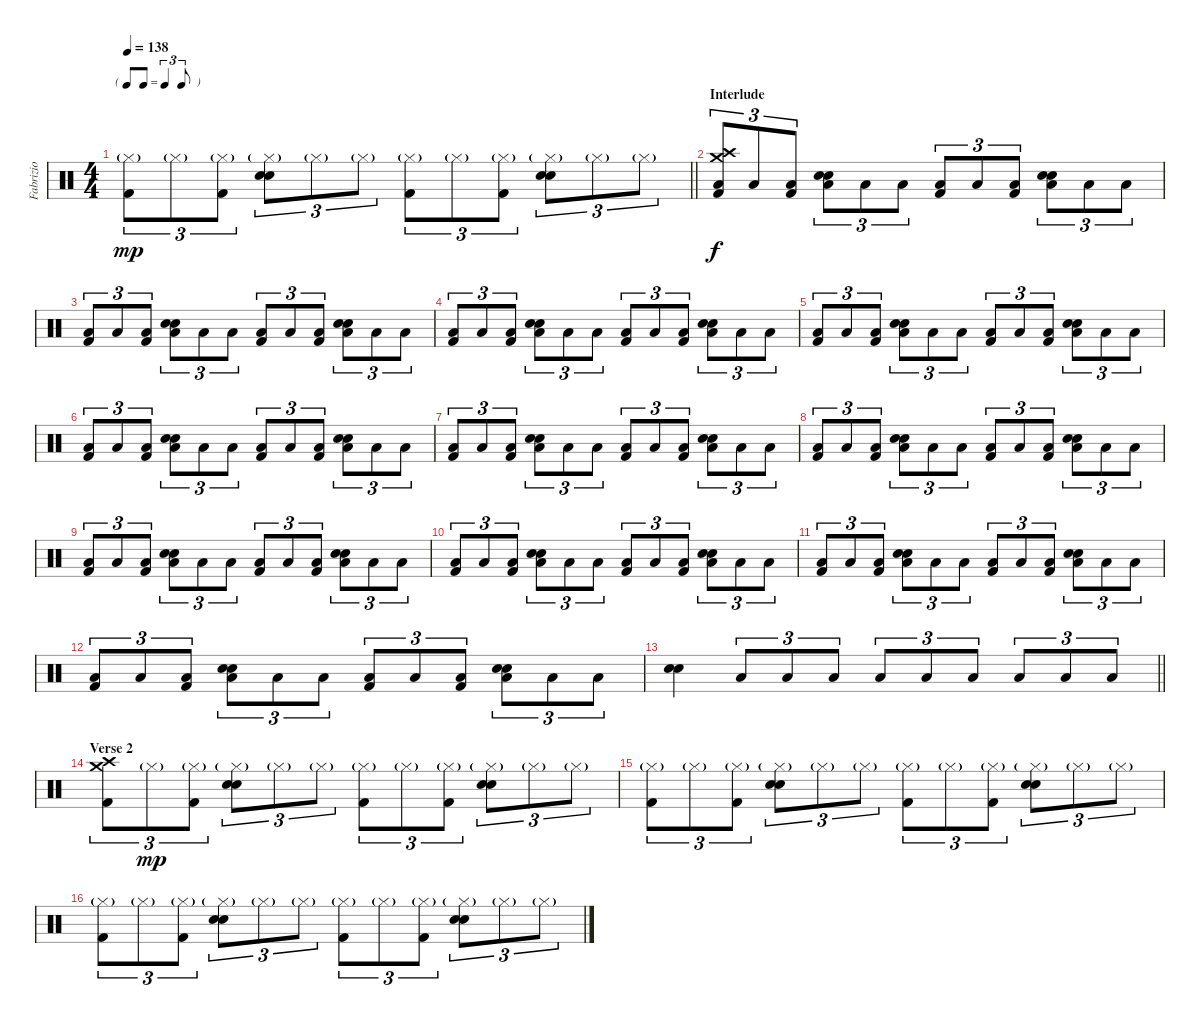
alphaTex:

\track ("Fabrizio" "Fabrizio") {instrument percussion}
\staff {score}
\articulation defaults
\ts (4 4)
\tf triplet8th
\tempo 138
\clef neutral
\barLineRight lightlight
\ks c
("Hi-Hat (closed)"{g} "Kick (hit) 2").8{tu (3 2) dy mp} "Hi-Hat (closed)"{g}.8{tu (3 2)} ("Hi-Hat (closed)"{g} "Kick (hit) 2").8{tu (3 2)} ("Hi-Hat (closed)"{g} "Electric Snare (hit)" "Snare (hit) 2").8{tu (3 2)} "Hi-Hat (closed)"{g}.8{tu (3 2)} "Hi-Hat (closed)"{g}.8{tu (3 2)} ("Hi-Hat (closed)"{g} "Kick (hit) 2").8{tu (3 2)} "Hi-Hat (closed)"{g}.8{tu (3 2)} ("Hi-Hat (closed)"{g} "Kick (hit) 2").8{tu (3 2)} ("Hi-Hat (closed)"{g} "Electric Snare (hit)" "Snare (hit) 2").8{tu (3 2)} "Hi-Hat (closed)"{g}.8{tu (3 2)} "Hi-Hat (closed)"{g}.8{tu (3 2)} |
\section ("" "Interlude")
("Crash high (hit)" "Crash medium (hit)" "Kick (hit) 2" "Low Floor Tom (hit)").8{tu (3 2) dy f} "Low Floor Tom (hit)".8{tu (3 2)} ("Kick (hit) 2" "Low Floor Tom (hit)").8{tu (3 2)} ("Electric Snare (hit)" "Snare (hit) 2" "Low Floor Tom (hit)").8{tu (3 2)} "Low Floor Tom (hit)".8{tu (3 2)} "Low Floor Tom (hit)".8{tu (3 2)} ("Kick (hit) 2" "Low Floor Tom (hit)").8{tu (3 2)} "Low Floor Tom (hit)".8{tu (3 2)} ("Kick (hit) 2" "Low Floor Tom (hit)").8{tu (3 2)} ("Electric Snare (hit)" "Snare (hit) 2" "Low Floor Tom (hit)").8{tu (3 2)} "Low Floor Tom (hit)".8{tu (3 2)} "Low Floor Tom (hit)".8{tu (3 2)} |
("Kick (hit) 2" "Low Floor Tom (hit)").8{tu (3 2)} "Low Floor Tom (hit)".8{tu (3 2)} ("Kick (hit) 2" "Low Floor Tom (hit)").8{tu (3 2)} ("Electric Snare (hit)" "Snare (hit) 2" "Low Floor Tom (hit)").8{tu (3 2)} "Low Floor Tom (hit)".8{tu (3 2)} "Low Floor Tom (hit)".8{tu (3 2)} ("Kick (hit) 2" "Low Floor Tom (hit)").8{tu (3 2)} "Low Floor Tom (hit)".8{tu (3 2)} ("Kick (hit) 2" "Low Floor Tom (hit)").8{tu (3 2)} ("Electric Snare (hit)" "Snare (hit) 2" "Low Floor Tom (hit)").8{tu (3 2)} "Low Floor Tom (hit)".8{tu (3 2)} "Low Floor Tom (hit)".8{tu (3 2)} |
("Kick (hit) 2" "Low Floor Tom (hit)").8{tu (3 2)} "Low Floor Tom (hit)".8{tu (3 2)} ("Kick (hit) 2" "Low Floor Tom (hit)").8{tu (3 2)} ("Electric Snare (hit)" "Snare (hit) 2" "Low Floor Tom (hit)").8{tu (3 2)} "Low Floor Tom (hit)".8{tu (3 2)} "Low Floor Tom (hit)".8{tu (3 2)} ("Kick (hit) 2" "Low Floor Tom (hit)").8{tu (3 2)} "Low Floor Tom (hit)".8{tu (3 2)} ("Kick (hit) 2" "Low Floor Tom (hit)").8{tu (3 2)} ("Electric Snare (hit)" "Snare (hit) 2" "Low Floor Tom (hit)").8{tu (3 2)} "Low Floor Tom (hit)".8{tu (3 2)} "Low Floor Tom (hit)".8{tu (3 2)} |
("Kick (hit) 2" "Low Floor Tom (hit)").8{tu (3 2)} "Low Floor Tom (hit)".8{tu (3 2)} ("Kick (hit) 2" "Low Floor Tom (hit)").8{tu (3 2)} ("Electric Snare (hit)" "Snare (hit) 2" "Low Floor Tom (hit)").8{tu (3 2)} "Low Floor Tom (hit)".8{tu (3 2)} "Low Floor Tom (hit)".8{tu (3 2)} ("Kick (hit) 2" "Low Floor Tom (hit)").8{tu (3 2)} "Low Floor Tom (hit)".8{tu (3 2)} ("Kick (hit) 2" "Low Floor Tom (hit)").8{tu (3 2)} ("Electric Snare (hit)" "Snare (hit) 2" "Low Floor Tom (hit)").8{tu (3 2)} "Low Floor Tom (hit)".8{tu (3 2)} "Low Floor Tom (hit)".8{tu (3 2)} |
("Kick (hit) 2" "Low Floor Tom (hit)").8{tu (3 2)} "Low Floor Tom (hit)".8{tu (3 2)} ("Kick (hit) 2" "Low Floor Tom (hit)").8{tu (3 2)} ("Electric Snare (hit)" "Snare (hit) 2" "Low Floor Tom (hit)").8{tu (3 2)} "Low Floor Tom (hit)".8{tu (3 2)} "Low Floor Tom (hit)".8{tu (3 2)} ("Kick (hit) 2" "Low Floor Tom (hit)").8{tu (3 2)} "Low Floor Tom (hit)".8{tu (3 2)} ("Kick (hit) 2" "Low Floor Tom (hit)").8{tu (3 2)} ("Electric Snare (hit)" "Snare (hit) 2" "Low Floor Tom (hit)").8{tu (3 2)} "Low Floor Tom (hit)".8{tu (3 2)} "Low Floor Tom (hit)".8{tu (3 2)} |
("Kick (hit) 2" "Low Floor Tom (hit)").8{tu (3 2)} "Low Floor Tom (hit)".8{tu (3 2)} ("Kick (hit) 2" "Low Floor Tom (hit)").8{tu (3 2)} ("Electric Snare (hit)" "Snare (hit) 2" "Low Floor Tom (hit)").8{tu (3 2)} "Low Floor Tom (hit)".8{tu (3 2)} "Low Floor Tom (hit)".8{tu (3 2)} ("Kick (hit) 2" "Low Floor Tom (hit)").8{tu (3 2)} "Low Floor Tom (hit)".8{tu (3 2)} ("Kick (hit) 2" "Low Floor Tom (hit)").8{tu (3 2)} ("Electric Snare (hit)" "Snare (hit) 2" "Low Floor Tom (hit)").8{tu (3 2)} "Low Floor Tom (hit)".8{tu (3 2)} "Low Floor Tom (hit)".8{tu (3 2)} |
("Kick (hit) 2" "Low Floor Tom (hit)").8{tu (3 2)} "Low Floor Tom (hit)".8{tu (3 2)} ("Kick (hit) 2" "Low Floor Tom (hit)").8{tu (3 2)} ("Electric Snare (hit)" "Snare (hit) 2" "Low Floor Tom (hit)").8{tu (3 2)} "Low Floor Tom (hit)".8{tu (3 2)} "Low Floor Tom (hit)".8{tu (3 2)} ("Kick (hit) 2" "Low Floor Tom (hit)").8{tu (3 2)} "Low Floor Tom (hit)".8{tu (3 2)} ("Kick (hit) 2" "Low Floor Tom (hit)").8{tu (3 2)} ("Electric Snare (hit)" "Snare (hit) 2" "Low Floor Tom (hit)").8{tu (3 2)} "Low Floor Tom (hit)".8{tu (3 2)} "Low Floor Tom (hit)".8{tu (3 2)} |
("Kick (hit) 2" "Low Floor Tom (hit)").8{tu (3 2)} "Low Floor Tom (hit)".8{tu (3 2)} ("Kick (hit) 2" "Low Floor Tom (hit)").8{tu (3 2)} ("Electric Snare (hit)" "Snare (hit) 2" "Low Floor Tom (hit)").8{tu (3 2)} "Low Floor Tom (hit)".8{tu (3 2)} "Low Floor Tom (hit)".8{tu (3 2)} ("Kick (hit) 2" "Low Floor Tom (hit)").8{tu (3 2)} "Low Floor Tom (hit)".8{tu (3 2)} ("Kick (hit) 2" "Low Floor Tom (hit)").8{tu (3 2)} ("Electric Snare (hit)" "Snare (hit) 2" "Low Floor Tom (hit)").8{tu (3 2)} "Low Floor Tom (hit)".8{tu (3 2)} "Low Floor Tom (hit)".8{tu (3 2)} |
("Kick (hit) 2" "Low Floor Tom (hit)").8{tu (3 2)} "Low Floor Tom (hit)".8{tu (3 2)} ("Kick (hit) 2" "Low Floor Tom (hit)").8{tu (3 2)} ("Electric Snare (hit)" "Snare (hit) 2" "Low Floor Tom (hit)").8{tu (3 2)} "Low Floor Tom (hit)".8{tu (3 2)} "Low Floor Tom (hit)".8{tu (3 2)} ("Kick (hit) 2" "Low Floor Tom (hit)").8{tu (3 2)} "Low Floor Tom (hit)".8{tu (3 2)} ("Kick (hit) 2" "Low Floor Tom (hit)").8{tu (3 2)} ("Electric Snare (hit)" "Snare (hit) 2" "Low Floor Tom (hit)").8{tu (3 2)} "Low Floor Tom (hit)".8{tu (3 2)} "Low Floor Tom (hit)".8{tu (3 2)} |
("Kick (hit) 2" "Low Floor Tom (hit)").8{tu (3 2)} "Low Floor Tom (hit)".8{tu (3 2)} ("Kick (hit) 2" "Low Floor Tom (hit)").8{tu (3 2)} ("Electric Snare (hit)" "Snare (hit) 2" "Low Floor Tom (hit)").8{tu (3 2)} "Low Floor Tom (hit)".8{tu (3 2)} "Low Floor Tom (hit)".8{tu (3 2)} ("Kick (hit) 2" "Low Floor Tom (hit)").8{tu (3 2)} "Low Floor Tom (hit)".8{tu (3 2)} ("Kick (hit) 2" "Low Floor Tom (hit)").8{tu (3 2)} ("Electric Snare (hit)" "Snare (hit) 2" "Low Floor Tom (hit)").8{tu (3 2)} "Low Floor Tom (hit)".8{tu (3 2)} "Low Floor Tom (hit)".8{tu (3 2)} |
("Kick (hit) 2" "Low Floor Tom (hit)").8{tu (3 2)} "Low Floor Tom (hit)".8{tu (3 2)} ("Kick (hit) 2" "Low Floor Tom (hit)").8{tu (3 2)} ("Electric Snare (hit)" "Snare (hit) 2" "Low Floor Tom (hit)").8{tu (3 2)} "Low Floor Tom (hit)".8{tu (3 2)} "Low Floor Tom (hit)".8{tu (3 2)} ("Kick (hit) 2" "Low Floor Tom (hit)").8{tu (3 2)} "Low Floor Tom (hit)".8{tu (3 2)} ("Kick (hit) 2" "Low Floor Tom (hit)").8{tu (3 2)} ("Electric Snare (hit)" "Snare (hit) 2" "Low Floor Tom (hit)").8{tu (3 2)} "Low Floor Tom (hit)".8{tu (3 2)} "Low Floor Tom (hit)".8{tu (3 2)} |
\barLineRight lightlight
("Electric Snare (hit)" "Snare (hit) 2").4 "Low Floor Tom (hit)".8{tu (3 2)} "Low Floor Tom (hit)".8{tu (3 2)} "Low Floor Tom (hit)".8{tu (3 2)} "Low Floor Tom (hit)".8{tu (3 2)} "Low Floor Tom (hit)".8{tu (3 2)} "Low Floor Tom (hit)".8{tu (3 2)} "Low Floor Tom (hit)".8{tu (3 2)} "Low Floor Tom (hit)".8{tu (3 2)} "Low Floor Tom (hit)".8{tu (3 2)} |
\section ("" "Verse 2")
("Crash medium (hit)" "Crash high (hit)" "Kick (hit) 2").8{tu (3 2)} "Hi-Hat (closed)"{g}.8{tu (3 2) dy mp} ("Hi-Hat (closed)"{g} "Kick (hit) 2").8{tu (3 2)} ("Hi-Hat (closed)"{g} "Electric Snare (hit)" "Snare (hit) 2").8{tu (3 2)} "Hi-Hat (closed)"{g}.8{tu (3 2)} "Hi-Hat (closed)"{g}.8{tu (3 2)} ("Hi-Hat (closed)"{g} "Kick (hit) 2").8{tu (3 2)} "Hi-Hat (closed)"{g}.8{tu (3 2)} ("Hi-Hat (closed)"{g} "Kick (hit) 2").8{tu (3 2)} ("Hi-Hat (closed)"{g} "Electric Snare (hit)" "Snare (hit) 2").8{tu (3 2)} "Hi-Hat (closed)"{g}.8{tu (3 2)} "Hi-Hat (closed)"{g}.8{tu (3 2)} |
("Hi-Hat (closed)"{g} "Kick (hit) 2").8{tu (3 2)} "Hi-Hat (closed)"{g}.8{tu (3 2)} ("Hi-Hat (closed)"{g} "Kick (hit) 2").8{tu (3 2)} ("Hi-Hat (closed)"{g} "Electric Snare (hit)" "Snare (hit) 2").8{tu (3 2)} "Hi-Hat (closed)"{g}.8{tu (3 2)} "Hi-Hat (closed)"{g}.8{tu (3 2)} ("Hi-Hat (closed)"{g} "Kick (hit) 2").8{tu (3 2)} "Hi-Hat (closed)"{g}.8{tu (3 2)} ("Hi-Hat (closed)"{g} "Kick (hit) 2").8{tu (3 2)} ("Hi-Hat (closed)"{g} "Electric Snare (hit)" "Snare (hit) 2").8{tu (3 2)} "Hi-Hat (closed)"{g}.8{tu (3 2)} "Hi-Hat (closed)"{g}.8{tu (3 2)} |
("Hi-Hat (closed)"{g} "Kick (hit) 2").8{tu (3 2)} "Hi-Hat (closed)"{g}.8{tu (3 2)} ("Hi-Hat (closed)"{g} "Kick (hit) 2").8{tu (3 2)} ("Hi-Hat (closed)"{g} "Electric Snare (hit)" "Snare (hit) 2").8{tu (3 2)} "Hi-Hat (closed)"{g}.8{tu (3 2)} "Hi-Hat (closed)"{g}.8{tu (3 2)} ("Hi-Hat (closed)"{g} "Kick (hit) 2").8{tu (3 2)} "Hi-Hat (closed)"{g}.8{tu (3 2)} ("Hi-Hat (closed)"{g} "Kick (hit) 2").8{tu (3 2)} ("Hi-Hat (closed)"{g} "Electric Snare (hit)" "Snare (hit) 2").8{tu (3 2)} "Hi-Hat (closed)"{g}.8{tu (3 2)} "Hi-Hat (closed)"{g}.8{tu (3 2)}
